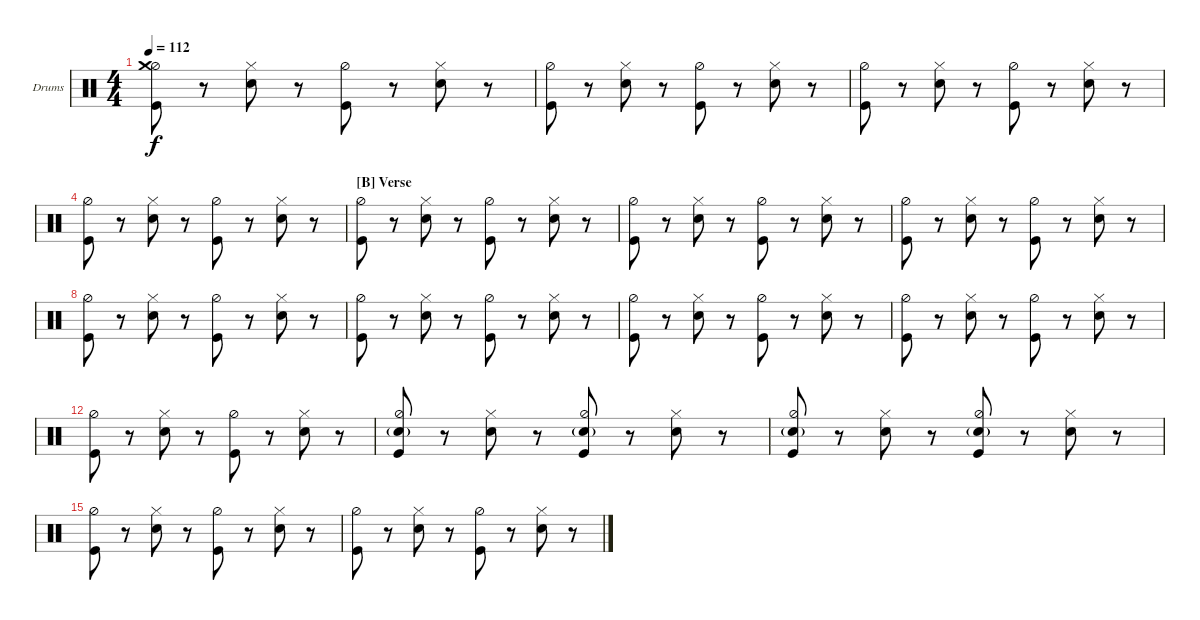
\bracketExtendMode nobrackets
\firstSystemTrackNameOrientation horizontal
\otherSystemsTrackNameOrientation horizontal
\defaultBarNumberDisplay FirstOfSystem
\track ("Drumkit" "Drums") {instrument percussion}
\staff {score}
\articulation defaults
\ts (4 4)
\tempo 112
\clef neutral
\ks c
("Kick (hit)" "Hi-Hat (half)" "Crash medium (hit)").8{dy f} r.8 ("Snare (hit) 2" "Hi-Hat (closed)").8 r.8 ("Kick (hit)" "Hi-Hat (half)").8 r.8 ("Snare (hit) 2" "Hi-Hat (closed)").8 r.8 |
("Kick (hit)" "Hi-Hat (half)").8 r.8 ("Snare (hit) 2" "Hi-Hat (closed)").8 r.8 ("Kick (hit)" "Hi-Hat (half)").8 r.8 ("Snare (hit) 2" "Hi-Hat (closed)").8 r.8 |
("Kick (hit)" "Hi-Hat (half)").8 r.8 ("Snare (hit) 2" "Hi-Hat (closed)").8 r.8 ("Kick (hit)" "Hi-Hat (half)").8 r.8 ("Snare (hit) 2" "Hi-Hat (closed)").8 r.8 |
("Kick (hit)" "Hi-Hat (half)").8 r.8 ("Snare (hit) 2" "Hi-Hat (closed)").8 r.8 ("Kick (hit)" "Hi-Hat (half)").8 r.8 ("Snare (hit) 2" "Hi-Hat (closed)").8 r.8 |
\section ("B" "Verse")
("Kick (hit)" "Hi-Hat (half)").8 r.8 ("Snare (hit) 2" "Hi-Hat (closed)").8 r.8 ("Kick (hit)" "Hi-Hat (half)").8 r.8 ("Snare (hit) 2" "Hi-Hat (closed)").8 r.8 |
("Kick (hit)" "Hi-Hat (half)").8 r.8 ("Snare (hit) 2" "Hi-Hat (closed)").8 r.8 ("Kick (hit)" "Hi-Hat (half)").8 r.8 ("Snare (hit) 2" "Hi-Hat (closed)").8 r.8 |
("Kick (hit)" "Hi-Hat (half)").8 r.8 ("Snare (hit) 2" "Hi-Hat (closed)").8 r.8 ("Kick (hit)" "Hi-Hat (half)").8 r.8 ("Snare (hit) 2" "Hi-Hat (closed)").8 r.8 |
("Kick (hit)" "Hi-Hat (half)").8 r.8 ("Snare (hit) 2" "Hi-Hat (closed)").8 r.8 ("Kick (hit)" "Hi-Hat (half)").8 r.8 ("Snare (hit) 2" "Hi-Hat (closed)").8 r.8 |
("Kick (hit)" "Hi-Hat (half)").8 r.8 ("Snare (hit) 2" "Hi-Hat (closed)").8 r.8 ("Kick (hit)" "Hi-Hat (half)").8 r.8 ("Snare (hit) 2" "Hi-Hat (closed)").8 r.8 |
("Kick (hit)" "Hi-Hat (half)").8 r.8 ("Snare (hit) 2" "Hi-Hat (closed)").8 r.8 ("Kick (hit)" "Hi-Hat (half)").8 r.8 ("Snare (hit) 2" "Hi-Hat (closed)").8 r.8 |
("Kick (hit)" "Hi-Hat (half)").8 r.8 ("Snare (hit) 2" "Hi-Hat (closed)").8 r.8 ("Kick (hit)" "Hi-Hat (half)").8 r.8 ("Snare (hit) 2" "Hi-Hat (closed)").8 r.8 |
("Kick (hit)" "Hi-Hat (half)").8 r.8 ("Snare (hit) 2" "Hi-Hat (closed)").8 r.8 ("Kick (hit)" "Hi-Hat (half)").8 r.8 ("Snare (hit) 2" "Hi-Hat (closed)").8 r.8 |
("Kick (hit)" "Hi-Hat (half)" "Snare (hit) 2"{g}).8 r.8 ("Snare (hit) 2" "Hi-Hat (closed)").8 r.8 ("Kick (hit)" "Hi-Hat (half)" "Snare (hit) 2"{g}).8 r.8 ("Snare (hit) 2" "Hi-Hat (closed)").8 r.8 |
("Kick (hit)" "Hi-Hat (half)" "Snare (hit) 2"{g}).8 r.8 ("Snare (hit) 2" "Hi-Hat (closed)").8 r.8 ("Kick (hit)" "Hi-Hat (half)" "Snare (hit) 2"{g}).8 r.8 ("Snare (hit) 2" "Hi-Hat (closed)").8 r.8 |
("Kick (hit)" "Hi-Hat (half)").8 r.8 ("Snare (hit) 2" "Hi-Hat (closed)").8 r.8 ("Kick (hit)" "Hi-Hat (half)").8 r.8 ("Snare (hit) 2" "Hi-Hat (closed)").8 r.8 |
("Kick (hit)" "Hi-Hat (half)").8 r.8 ("Snare (hit) 2" "Hi-Hat (closed)").8 r.8 ("Kick (hit)" "Hi-Hat (half)").8 r.8 ("Snare (hit) 2" "Hi-Hat (closed)").8 r.8
